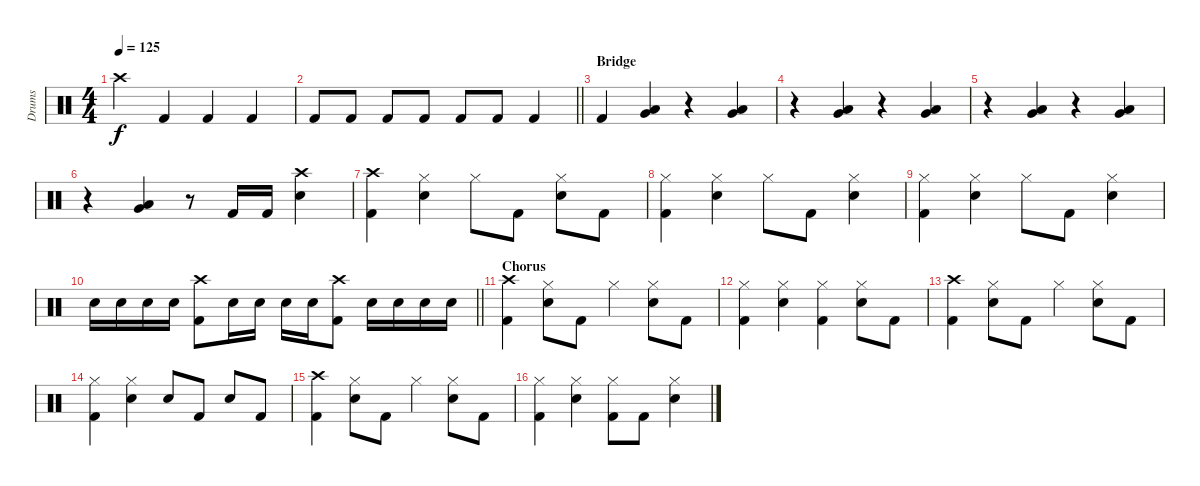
\track ("Drums" "Drums") {instrument percussion}
\staff {score}
\articulation defaults
\ts (4 4)
\tempo 125
\clef neutral
\ks c "Crash high (hit)".4{dy f} "Kick (hit) 2".4 "Kick (hit) 2".4 "Kick (hit) 2".4
|
\barLineRight lightlight "Kick (hit) 2".8 "Kick (hit) 2".8 "Kick (hit) 2".8 "Kick (hit) 2".8 "Kick (hit) 2".8 "Kick (hit) 2".8 "Kick (hit) 2".4
|
\section ("" "Bridge")
"Kick (hit) 2".4 ("Low Tom (hit)" "Very Low Tom (hit)").4 r.4 ("Low Tom (hit)" "Very Low Tom (hit)").4 |
r.4 ("Low Tom (hit)" "Very Low Tom (hit)").4 r.4 ("Low Tom (hit)" "Very Low Tom (hit)").4 |
r.4 ("Low Tom (hit)" "Very Low Tom (hit)").4 r.4 ("Low Tom (hit)" "Very Low Tom (hit)").4 |
r.4 ("Low Tom (hit)" "Very Low Tom (hit)").4 r.8 "Kick (hit) 2".16 "Kick (hit) 2".16 ("Crash high (hit)" "Electric Snare (hit)").4 |
("Crash high (hit)" "Kick (hit) 2").4 ("Hi-Hat (closed)" "Electric Snare (hit)").4 "Hi-Hat (closed)".8 "Kick (hit) 2".8 ("Hi-Hat (closed)" "Electric Snare (hit)").8 "Kick (hit) 2".8 |
("Hi-Hat (closed)" "Kick (hit) 2").4 ("Hi-Hat (closed)" "Electric Snare (hit)").4 "Hi-Hat (closed)".8 "Kick (hit) 2".8 ("Hi-Hat (closed)" "Electric Snare (hit)").4 |
("Hi-Hat (closed)" "Kick (hit) 2").4 ("Hi-Hat (closed)" "Electric Snare (hit)").4 "Hi-Hat (closed)".8 "Kick (hit) 2".8 ("Hi-Hat (closed)" "Electric Snare (hit)").4 |
\barLineRight lightlight "Electric Snare (hit)".16 "Electric Snare (hit)".16 "Electric Snare (hit)".16 "Electric Snare (hit)".16
("Crash high (hit)" "Kick (hit) 2").8 "Electric Snare (hit)".16 "Electric Snare (hit)".16 "Electric Snare (hit)".16 "Electric Snare (hit)".16 ("Crash high (hit)" "Kick (hit) 2").8 "Electric Snare (hit)".16 "Electric Snare (hit)".16 "Electric Snare (hit)".16 "Electric Snare (hit)".16 |
\section ("" "Chorus")
("Crash high (hit)" "Kick (hit) 2").4 ("Hi-Hat (closed)" "Electric Snare (hit)").8 "Kick (hit) 2".8 "Hi-Hat (closed)".4 ("Hi-Hat (closed)" "Electric Snare (hit)").8 "Kick (hit) 2".8 |
("Hi-Hat (closed)" "Kick (hit) 2").4 ("Hi-Hat (closed)" "Electric Snare (hit)").4 ("Hi-Hat (closed)" "Kick (hit) 2").4 ("Hi-Hat (closed)" "Electric Snare (hit)").8 "Kick (hit) 2".8 |
("Crash high (hit)" "Kick (hit) 2").4 ("Hi-Hat (closed)" "Electric Snare (hit)").8 "Kick (hit) 2".8 "Hi-Hat (closed)".4 ("Hi-Hat (closed)" "Electric Snare (hit)").8 "Kick (hit) 2".8 |
("Hi-Hat (closed)" "Kick (hit) 2").4 ("Hi-Hat (closed)" "Electric Snare (hit)").4 "Electric Snare (hit)".8 "Kick (hit) 2".8 "Electric Snare (hit)".8 "Kick (hit) 2".8 |
("Crash high (hit)" "Kick (hit) 2").4 ("Hi-Hat (closed)" "Electric Snare (hit)").8 "Kick (hit) 2".8 "Hi-Hat (closed)".4 ("Hi-Hat (closed)" "Electric Snare (hit)").8 "Kick (hit) 2".8 |
("Hi-Hat (closed)" "Kick (hit) 2").4 ("Hi-Hat (closed)" "Electric Snare (hit)").4 ("Hi-Hat (closed)" "Kick (hit) 2").8 "Kick (hit) 2".8 ("Hi-Hat (closed)" "Electric Snare (hit)").4
